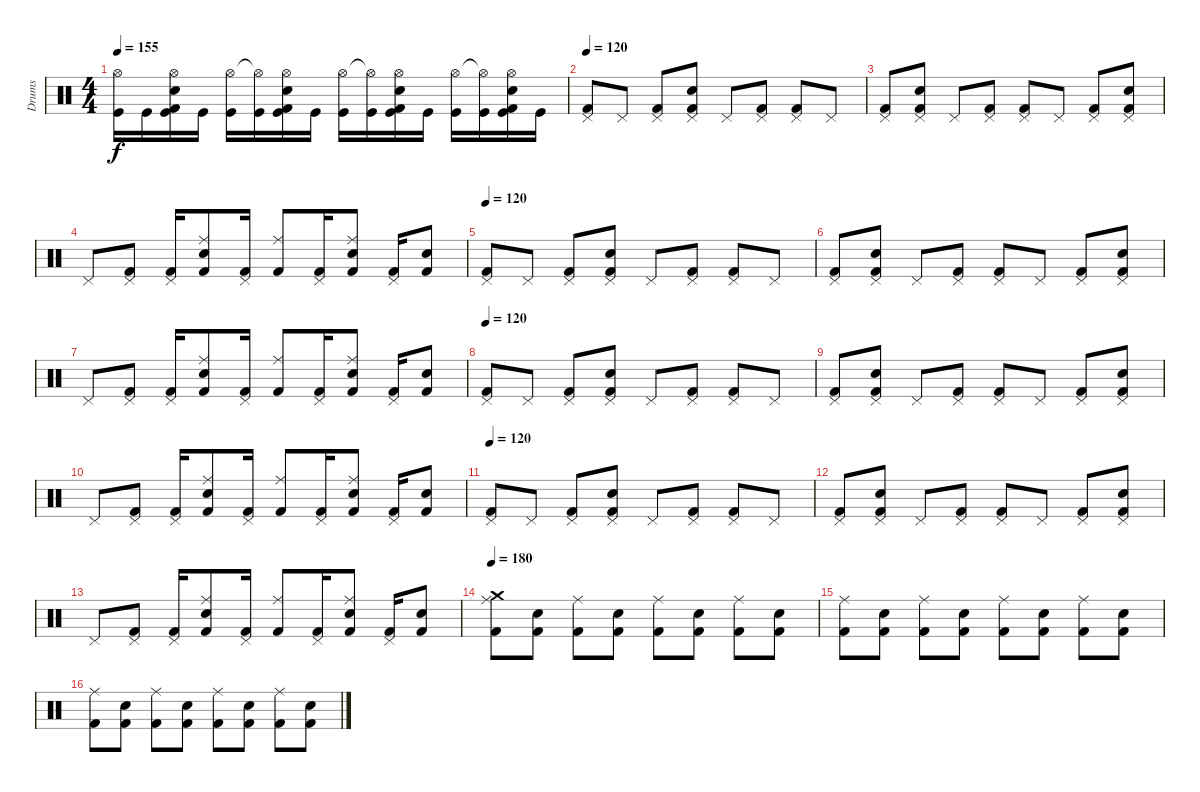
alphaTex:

\track ("Drums" "Drums") {instrument percussion}
\staff {score}
\articulation defaults
\ts (4 4)
\tempo 155
\clef neutral
\ks c
("Hi-Hat (open)" "Kick (hit)").16{dy f} "Kick (hit)".16 ("Kick (hit) 2" "Electric Snare (hit)" "Hi-Hat (open)" "Kick (hit)").16 "Kick (hit)".16 ("Hi-Hat (open)" "Kick (hit)").16 ("Hi-Hat (open)"{t} "Kick (hit)").16 ("Kick (hit) 2" "Electric Snare (hit)" "Hi-Hat (open)" "Kick (hit)").16 "Kick (hit)".16 ("Hi-Hat (open)" "Kick (hit)").16 ("Hi-Hat (open)"{t} "Kick (hit)").16 ("Kick (hit) 2" "Electric Snare (hit)" "Hi-Hat (open)" "Kick (hit)").16 "Kick (hit)".16 ("Hi-Hat (open)" "Kick (hit)").16 ("Hi-Hat (open)"{t} "Kick (hit)").16 ("Kick (hit) 2" "Electric Snare (hit)" "Hi-Hat (open)" "Kick (hit)").16 "Kick (hit)".16 |
\tempo 120
("Pedal Hi-Hat (hit)" "Kick (hit) 2").8 "Pedal Hi-Hat (hit)".8 ("Pedal Hi-Hat (hit)" "Kick (hit) 2").8 ("Pedal Hi-Hat (hit)" "Kick (hit) 2" "Electric Snare (hit)").8 "Pedal Hi-Hat (hit)".8 ("Pedal Hi-Hat (hit)" "Kick (hit) 2").8 ("Pedal Hi-Hat (hit)" "Kick (hit) 2").8 "Pedal Hi-Hat (hit)".8 |
("Pedal Hi-Hat (hit)" "Kick (hit) 2").8 ("Pedal Hi-Hat (hit)" "Kick (hit) 2" "Electric Snare (hit)").8 "Pedal Hi-Hat (hit)".8 ("Pedal Hi-Hat (hit)" "Kick (hit) 2").8 ("Pedal Hi-Hat (hit)" "Kick (hit) 2").8 "Pedal Hi-Hat (hit)".8 ("Pedal Hi-Hat (hit)" "Kick (hit) 2").8 ("Pedal Hi-Hat (hit)" "Kick (hit) 2" "Electric Snare (hit)").8 |
"Pedal Hi-Hat (hit)".8 ("Pedal Hi-Hat (hit)" "Kick (hit) 2").8 ("Pedal Hi-Hat (hit)" "Kick (hit) 2").16 ("Ride (middle)" "Kick (hit) 2" "Electric Snare (hit)").8 ("Pedal Hi-Hat (hit)" "Kick (hit) 2").16 ("Ride (middle)" "Kick (hit) 2").8 ("Pedal Hi-Hat (hit)" "Kick (hit) 2").16 ("Ride (middle)" "Kick (hit) 2" "Electric Snare (hit)").8 ("Pedal Hi-Hat (hit)" "Kick (hit) 2").16 ("Kick (hit) 2" "Electric Snare (hit)").8 |
\tempo 120
("Pedal Hi-Hat (hit)" "Kick (hit) 2").8 "Pedal Hi-Hat (hit)".8 ("Pedal Hi-Hat (hit)" "Kick (hit) 2").8 ("Pedal Hi-Hat (hit)" "Kick (hit) 2" "Electric Snare (hit)").8 "Pedal Hi-Hat (hit)".8 ("Pedal Hi-Hat (hit)" "Kick (hit) 2").8 ("Pedal Hi-Hat (hit)" "Kick (hit) 2").8 "Pedal Hi-Hat (hit)".8 |
("Pedal Hi-Hat (hit)" "Kick (hit) 2").8 ("Pedal Hi-Hat (hit)" "Kick (hit) 2" "Electric Snare (hit)").8 "Pedal Hi-Hat (hit)".8 ("Pedal Hi-Hat (hit)" "Kick (hit) 2").8 ("Pedal Hi-Hat (hit)" "Kick (hit) 2").8 "Pedal Hi-Hat (hit)".8 ("Pedal Hi-Hat (hit)" "Kick (hit) 2").8 ("Pedal Hi-Hat (hit)" "Kick (hit) 2" "Electric Snare (hit)").8 |
"Pedal Hi-Hat (hit)".8 ("Pedal Hi-Hat (hit)" "Kick (hit) 2").8 ("Pedal Hi-Hat (hit)" "Kick (hit) 2").16 ("Ride (middle)" "Kick (hit) 2" "Electric Snare (hit)").8 ("Pedal Hi-Hat (hit)" "Kick (hit) 2").16 ("Ride (middle)" "Kick (hit) 2").8 ("Pedal Hi-Hat (hit)" "Kick (hit) 2").16 ("Ride (middle)" "Kick (hit) 2" "Electric Snare (hit)").8 ("Pedal Hi-Hat (hit)" "Kick (hit) 2").16 ("Kick (hit) 2" "Electric Snare (hit)").8 |
\tempo 120
("Pedal Hi-Hat (hit)" "Kick (hit) 2").8 "Pedal Hi-Hat (hit)".8 ("Pedal Hi-Hat (hit)" "Kick (hit) 2").8 ("Pedal Hi-Hat (hit)" "Kick (hit) 2" "Electric Snare (hit)").8 "Pedal Hi-Hat (hit)".8 ("Pedal Hi-Hat (hit)" "Kick (hit) 2").8 ("Pedal Hi-Hat (hit)" "Kick (hit) 2").8 "Pedal Hi-Hat (hit)".8 |
("Pedal Hi-Hat (hit)" "Kick (hit) 2").8 ("Pedal Hi-Hat (hit)" "Kick (hit) 2" "Electric Snare (hit)").8 "Pedal Hi-Hat (hit)".8 ("Pedal Hi-Hat (hit)" "Kick (hit) 2").8 ("Pedal Hi-Hat (hit)" "Kick (hit) 2").8 "Pedal Hi-Hat (hit)".8 ("Pedal Hi-Hat (hit)" "Kick (hit) 2").8 ("Pedal Hi-Hat (hit)" "Kick (hit) 2" "Electric Snare (hit)").8 |
"Pedal Hi-Hat (hit)".8 ("Pedal Hi-Hat (hit)" "Kick (hit) 2").8 ("Pedal Hi-Hat (hit)" "Kick (hit) 2").16 ("Ride (middle)" "Kick (hit) 2" "Electric Snare (hit)").8 ("Pedal Hi-Hat (hit)" "Kick (hit) 2").16 ("Ride (middle)" "Kick (hit) 2").8 ("Pedal Hi-Hat (hit)" "Kick (hit) 2").16 ("Ride (middle)" "Kick (hit) 2" "Electric Snare (hit)").8 ("Pedal Hi-Hat (hit)" "Kick (hit) 2").16 ("Kick (hit) 2" "Electric Snare (hit)").8 |
\tempo 120
("Pedal Hi-Hat (hit)" "Kick (hit) 2").8 "Pedal Hi-Hat (hit)".8 ("Pedal Hi-Hat (hit)" "Kick (hit) 2").8 ("Pedal Hi-Hat (hit)" "Kick (hit) 2" "Electric Snare (hit)").8 "Pedal Hi-Hat (hit)".8 ("Pedal Hi-Hat (hit)" "Kick (hit) 2").8 ("Pedal Hi-Hat (hit)" "Kick (hit) 2").8 "Pedal Hi-Hat (hit)".8 |
("Pedal Hi-Hat (hit)" "Kick (hit) 2").8 ("Pedal Hi-Hat (hit)" "Kick (hit) 2" "Electric Snare (hit)").8 "Pedal Hi-Hat (hit)".8 ("Pedal Hi-Hat (hit)" "Kick (hit) 2").8 ("Pedal Hi-Hat (hit)" "Kick (hit) 2").8 "Pedal Hi-Hat (hit)".8 ("Pedal Hi-Hat (hit)" "Kick (hit) 2").8 ("Pedal Hi-Hat (hit)" "Kick (hit) 2" "Electric Snare (hit)").8 |
"Pedal Hi-Hat (hit)".8 ("Pedal Hi-Hat (hit)" "Kick (hit) 2").8 ("Pedal Hi-Hat (hit)" "Kick (hit) 2").16 ("Ride (middle)" "Kick (hit) 2" "Electric Snare (hit)").8 ("Pedal Hi-Hat (hit)" "Kick (hit) 2").16 ("Ride (middle)" "Kick (hit) 2").8 ("Pedal Hi-Hat (hit)" "Kick (hit) 2").16 ("Ride (middle)" "Kick (hit) 2" "Electric Snare (hit)").8 ("Pedal Hi-Hat (hit)" "Kick (hit) 2").16 ("Kick (hit) 2" "Electric Snare (hit)").8 |
\tempo 180
("Crash medium (hit)" "Ride (middle)" "Kick (hit) 2").8 ("Kick (hit) 2" "Electric Snare (hit)").8 ("Ride (middle)" "Kick (hit) 2").8 ("Kick (hit) 2" "Electric Snare (hit)").8 ("Ride (middle)" "Kick (hit) 2").8 ("Kick (hit) 2" "Electric Snare (hit)").8 ("Ride (middle)" "Kick (hit) 2").8 ("Kick (hit) 2" "Electric Snare (hit)").8 |
("Ride (middle)" "Kick (hit) 2").8 ("Kick (hit) 2" "Electric Snare (hit)").8 ("Ride (middle)" "Kick (hit) 2").8 ("Kick (hit) 2" "Electric Snare (hit)").8 ("Ride (middle)" "Kick (hit) 2").8 ("Kick (hit) 2" "Electric Snare (hit)").8 ("Ride (middle)" "Kick (hit) 2").8 ("Kick (hit) 2" "Electric Snare (hit)").8 |
("Ride (middle)" "Kick (hit) 2").8 ("Kick (hit) 2" "Electric Snare (hit)").8 ("Ride (middle)" "Kick (hit) 2").8 ("Kick (hit) 2" "Electric Snare (hit)").8 ("Ride (middle)" "Kick (hit) 2").8 ("Kick (hit) 2" "Electric Snare (hit)").8 ("Ride (middle)" "Kick (hit) 2").8 ("Kick (hit) 2" "Electric Snare (hit)").8
